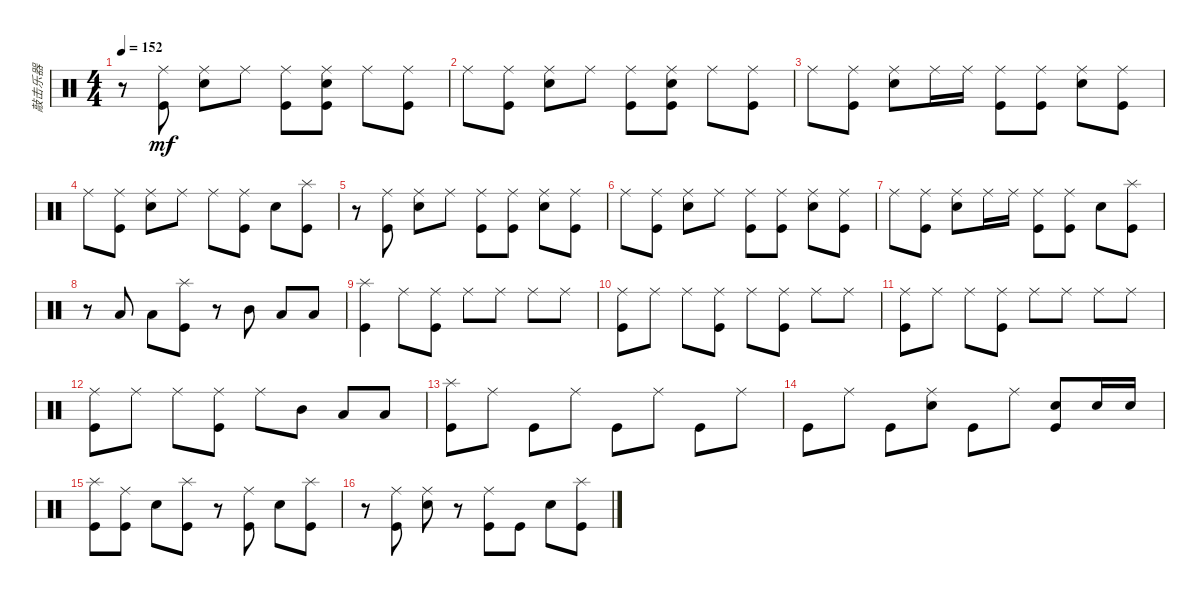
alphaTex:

\track ("敲击乐器" "敲击乐器") {instrument percussion}
\staff {score}
\articulation defaults
\ts (4 4)
\tempo 152
\clef neutral
\ks c
r.8{dy mf} ("Ride (middle)" "Kick (hit)").8 ("Ride (middle)" "Snare (hit) 2").8 "Ride (middle)".8 ("Ride (middle)" "Kick (hit)").8 ("Ride (middle)" "Snare (hit) 2" "Kick (hit)").8 "Ride (middle)".8 ("Ride (middle)" "Kick (hit)").8 |
"Ride (middle)".8 ("Ride (middle)" "Kick (hit)").8 ("Ride (middle)" "Snare (hit) 2").8 "Ride (middle)".8 ("Ride (middle)" "Kick (hit)").8 ("Ride (middle)" "Snare (hit) 2" "Kick (hit)").8 "Ride (middle)".8 ("Ride (middle)" "Kick (hit)").8 |
"Ride (middle)".8 ("Ride (middle)" "Kick (hit)").8 ("Ride (middle)" "Snare (hit) 2").8 "Ride (middle)".16 "Ride (middle)".16 ("Ride (middle)" "Kick (hit)").8 ("Ride (middle)" "Kick (hit)").8 ("Ride (middle)" "Snare (hit) 2").8 ("Ride (middle)" "Kick (hit)").8 |
"Ride (middle)".8 ("Ride (middle)" "Kick (hit)").8 ("Ride (middle)" "Snare (hit) 2").8 "Ride (middle)".8 "Ride (middle)".8 ("Ride (middle)" "Kick (hit)").8 "Snare (hit) 2".8 ("Splash (hit)" "Kick (hit)").8 |
r.8 ("Ride (middle)" "Kick (hit)").8 ("Ride (middle)" "Snare (hit) 2").8 "Ride (middle)".8 ("Ride (middle)" "Kick (hit)").8 ("Ride (middle)" "Kick (hit)").8 ("Ride (middle)" "Snare (hit) 2").8 ("Ride (middle)" "Kick (hit)").8 |
"Ride (middle)".8 ("Ride (middle)" "Kick (hit)").8 ("Ride (middle)" "Snare (hit) 2").8 "Ride (middle)".8 ("Ride (middle)" "Kick (hit)").8 ("Ride (middle)" "Kick (hit)").8 ("Ride (middle)" "Snare (hit) 2").8 ("Ride (middle)" "Kick (hit)").8 |
"Ride (middle)".8 ("Ride (middle)" "Kick (hit)").8 ("Ride (middle)" "Snare (hit) 2").8 "Ride (middle)".16 "Ride (middle)".16 ("Ride (middle)" "Kick (hit)").8 ("Ride (middle)" "Kick (hit)").8 "Snare (hit) 2".8 ("Splash (hit)" "Kick (hit)").8 |
r.8 "Low Floor Tom (hit)".8 "Low Floor Tom (hit)".8 ("Splash (hit)" "Kick (hit)").8 r.8 "Mid Tom (hit)".8 "Low Tom (hit)".8 "Low Floor Tom (hit)".8 |
("Splash (hit)" "Kick (hit)").4 "Ride (middle)".8 ("Ride (middle)" "Kick (hit)").8 "Ride (middle)".8 "Ride (middle)".8 "Ride (middle)".8 "Ride (middle)".8 |
("Ride (middle)" "Kick (hit)").8 "Ride (middle)".8 "Ride (middle)".8 ("Ride (middle)" "Kick (hit)").8 "Ride (middle)".8 ("Ride (middle)" "Kick (hit)").8 "Ride (middle)".8 "Ride (middle)".8 |
("Ride (middle)" "Kick (hit)").8 "Ride (middle)".8 "Ride (middle)".8 ("Ride (middle)" "Kick (hit)").8 "Ride (middle)".8 "Ride (middle)".8 "Ride (middle)".8 "Ride (middle)".8 |
("Ride (middle)" "Kick (hit)").8 "Ride (middle)".8 "Ride (middle)".8 ("Ride (middle)" "Kick (hit)").8 "Ride (middle)".8 "Mid Tom (hit)".8 "Low Tom (hit)".8 "Low Floor Tom (hit)".8 |
("Splash (hit)" "Kick (hit)").8 "Ride (middle)".8 "Kick (hit)".8 "Ride (middle)".8 "Kick (hit)".8 "Ride (middle)".8 "Kick (hit)".8 "Ride (middle)".8 |
"Kick (hit)".8 "Ride (middle)".8 "Kick (hit)".8 ("Ride (middle)" "Snare (hit) 2").8 "Kick (hit)".8 "Ride (middle)".8 ("Snare (hit) 2" "Kick (hit)").8 "Snare (hit) 2".16 "Snare (hit) 2".16 |
("Splash (hit)" "Kick (hit)").8 ("Ride (middle)" "Kick (hit)").8 "Snare (hit) 2".8 ("Splash (hit)" "Kick (hit)").8 r.8 ("Ride (middle)" "Kick (hit)").8 "Snare (hit) 2".8 ("Splash (hit)" "Kick (hit)").8 |
r.8 ("Ride (middle)" "Kick (hit)").8 ("Ride (middle)" "Snare (hit) 2").8 r.8 ("Ride (middle)" "Kick (hit)").8 "Kick (hit)".8 "Snare (hit) 2".8 ("Splash (hit)" "Kick (hit)").8
